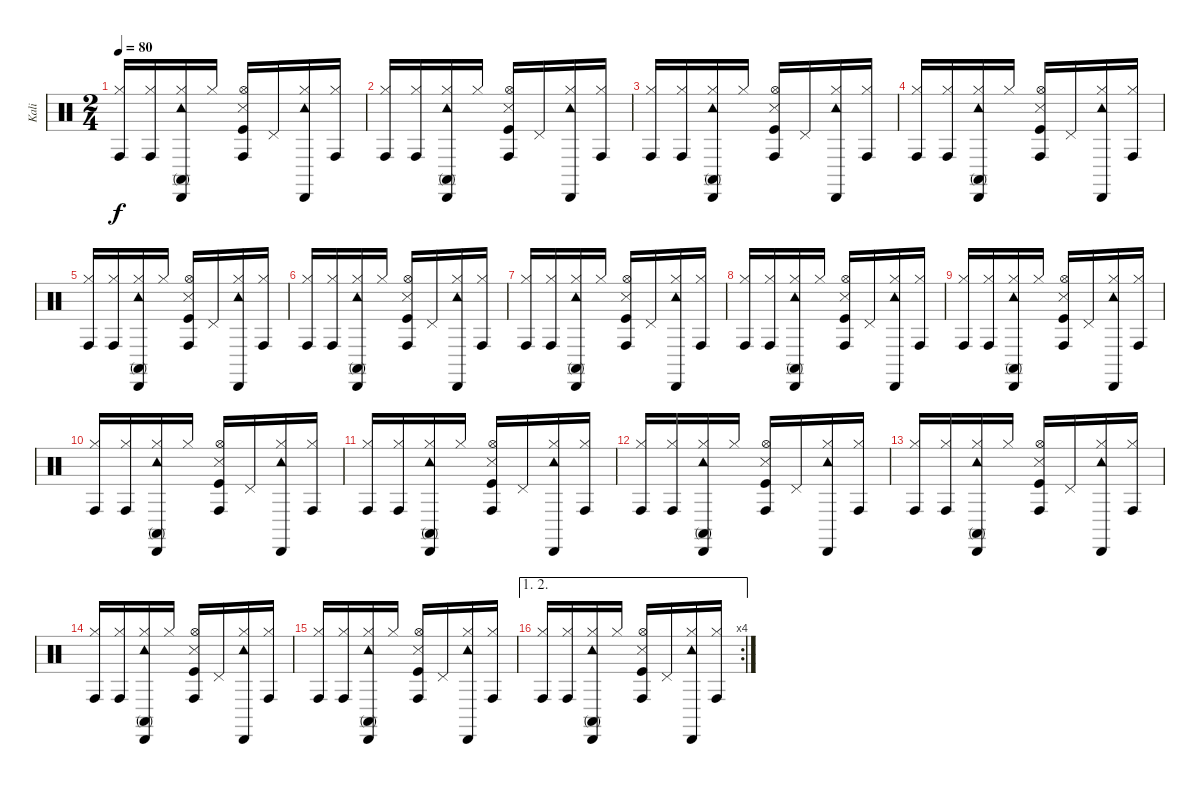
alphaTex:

\track ("Kali" "Kali") {instrument percussion}
\staff {score}
\articulation defaults
\ts (2 4)
\tempo 80
\clef neutral
\ks c
("Conga high (hit)" "Hi-Hat (closed)").16{dy f} ("Conga high (hit)" "Hi-Hat (closed)").16 ("Cabasa (hit)" "Tambourine (hit)" "Conga high (mute)" "Hi-Hat (closed)").16 "Hi-Hat (closed)".16 ("Conga high (hit)" "Hi-Hat (open)" "Snare (side stick) 3" "Kick (hit)").16 "Pedal Hi-Hat (hit)".16 ("Cabasa (hit)" "Tambourine (hit)" "Hi-Hat (closed)").16 ("Conga high (hit)" "Hi-Hat (closed)").16 |
("Conga high (hit)" "Hi-Hat (closed)").16 ("Conga high (hit)" "Hi-Hat (closed)").16 ("Cabasa (hit)" "Tambourine (hit)" "Conga high (mute)" "Hi-Hat (closed)").16 "Hi-Hat (closed)".16 ("Conga high (hit)" "Hi-Hat (open)" "Snare (side stick) 3" "Kick (hit)").16 "Pedal Hi-Hat (hit)".16 ("Cabasa (hit)" "Tambourine (hit)" "Hi-Hat (closed)").16 ("Conga high (hit)" "Hi-Hat (closed)").16 |
("Conga high (hit)" "Hi-Hat (closed)").16 ("Conga high (hit)" "Hi-Hat (closed)").16 ("Cabasa (hit)" "Tambourine (hit)" "Conga high (mute)" "Hi-Hat (closed)").16 "Hi-Hat (closed)".16 ("Conga high (hit)" "Hi-Hat (open)" "Snare (side stick) 3" "Kick (hit)").16 "Pedal Hi-Hat (hit)".16 ("Cabasa (hit)" "Tambourine (hit)" "Hi-Hat (closed)").16 ("Conga high (hit)" "Hi-Hat (closed)").16 |
("Conga high (hit)" "Hi-Hat (closed)").16 ("Conga high (hit)" "Hi-Hat (closed)").16 ("Cabasa (hit)" "Tambourine (hit)" "Conga high (mute)" "Hi-Hat (closed)").16 "Hi-Hat (closed)".16 ("Conga high (hit)" "Hi-Hat (open)" "Snare (side stick) 3" "Kick (hit)").16 "Pedal Hi-Hat (hit)".16 ("Cabasa (hit)" "Tambourine (hit)" "Hi-Hat (closed)").16 ("Conga high (hit)" "Hi-Hat (closed)").16 |
("Conga high (hit)" "Hi-Hat (closed)").16 ("Conga high (hit)" "Hi-Hat (closed)").16 ("Cabasa (hit)" "Tambourine (hit)" "Conga high (mute)" "Hi-Hat (closed)").16 "Hi-Hat (closed)".16 ("Conga high (hit)" "Hi-Hat (open)" "Snare (side stick) 3" "Kick (hit)").16 "Pedal Hi-Hat (hit)".16 ("Cabasa (hit)" "Tambourine (hit)" "Hi-Hat (closed)").16 ("Conga high (hit)" "Hi-Hat (closed)").16 |
("Conga high (hit)" "Hi-Hat (closed)").16 ("Conga high (hit)" "Hi-Hat (closed)").16 ("Cabasa (hit)" "Tambourine (hit)" "Conga high (mute)" "Hi-Hat (closed)").16 "Hi-Hat (closed)".16 ("Conga high (hit)" "Hi-Hat (open)" "Snare (side stick) 3" "Kick (hit)").16 "Pedal Hi-Hat (hit)".16 ("Cabasa (hit)" "Tambourine (hit)" "Hi-Hat (closed)").16 ("Conga high (hit)" "Hi-Hat (closed)").16 |
("Conga high (hit)" "Hi-Hat (closed)").16 ("Conga high (hit)" "Hi-Hat (closed)").16 ("Cabasa (hit)" "Tambourine (hit)" "Conga high (mute)" "Hi-Hat (closed)").16 "Hi-Hat (closed)".16 ("Conga high (hit)" "Hi-Hat (open)" "Snare (side stick) 3" "Kick (hit)").16 "Pedal Hi-Hat (hit)".16 ("Cabasa (hit)" "Tambourine (hit)" "Hi-Hat (closed)").16 ("Conga high (hit)" "Hi-Hat (closed)").16 |
("Conga high (hit)" "Hi-Hat (closed)").16 ("Conga high (hit)" "Hi-Hat (closed)").16 ("Cabasa (hit)" "Tambourine (hit)" "Conga high (mute)" "Hi-Hat (closed)").16 "Hi-Hat (closed)".16 ("Conga high (hit)" "Hi-Hat (open)" "Snare (side stick) 3" "Kick (hit)").16 "Pedal Hi-Hat (hit)".16 ("Cabasa (hit)" "Tambourine (hit)" "Hi-Hat (closed)").16 ("Conga high (hit)" "Hi-Hat (closed)").16 |
("Conga high (hit)" "Hi-Hat (closed)").16 ("Conga high (hit)" "Hi-Hat (closed)").16 ("Cabasa (hit)" "Tambourine (hit)" "Conga high (mute)" "Hi-Hat (closed)").16 "Hi-Hat (closed)".16 ("Conga high (hit)" "Hi-Hat (open)" "Snare (side stick) 3" "Kick (hit)").16 "Pedal Hi-Hat (hit)".16 ("Cabasa (hit)" "Tambourine (hit)" "Hi-Hat (closed)").16 ("Conga high (hit)" "Hi-Hat (closed)").16 |
("Conga high (hit)" "Hi-Hat (closed)").16 ("Conga high (hit)" "Hi-Hat (closed)").16 ("Cabasa (hit)" "Tambourine (hit)" "Conga high (mute)" "Hi-Hat (closed)").16 "Hi-Hat (closed)".16 ("Conga high (hit)" "Hi-Hat (open)" "Snare (side stick) 3" "Kick (hit)").16 "Pedal Hi-Hat (hit)".16 ("Cabasa (hit)" "Tambourine (hit)" "Hi-Hat (closed)").16 ("Conga high (hit)" "Hi-Hat (closed)").16 |
("Conga high (hit)" "Hi-Hat (closed)").16 ("Conga high (hit)" "Hi-Hat (closed)").16 ("Cabasa (hit)" "Tambourine (hit)" "Conga high (mute)" "Hi-Hat (closed)").16 "Hi-Hat (closed)".16 ("Conga high (hit)" "Hi-Hat (open)" "Snare (side stick) 3" "Kick (hit)").16 "Pedal Hi-Hat (hit)".16 ("Cabasa (hit)" "Tambourine (hit)" "Hi-Hat (closed)").16 ("Conga high (hit)" "Hi-Hat (closed)").16 |
("Conga high (hit)" "Hi-Hat (closed)").16 ("Conga high (hit)" "Hi-Hat (closed)").16 ("Cabasa (hit)" "Tambourine (hit)" "Conga high (mute)" "Hi-Hat (closed)").16 "Hi-Hat (closed)".16 ("Conga high (hit)" "Hi-Hat (open)" "Snare (side stick) 3" "Kick (hit)").16 "Pedal Hi-Hat (hit)".16 ("Cabasa (hit)" "Tambourine (hit)" "Hi-Hat (closed)").16 ("Conga high (hit)" "Hi-Hat (closed)").16 |
("Conga high (hit)" "Hi-Hat (closed)").16 ("Conga high (hit)" "Hi-Hat (closed)").16 ("Cabasa (hit)" "Tambourine (hit)" "Conga high (mute)" "Hi-Hat (closed)").16 "Hi-Hat (closed)".16 ("Conga high (hit)" "Hi-Hat (open)" "Snare (side stick) 3" "Kick (hit)").16 "Pedal Hi-Hat (hit)".16 ("Cabasa (hit)" "Tambourine (hit)" "Hi-Hat (closed)").16 ("Conga high (hit)" "Hi-Hat (closed)").16 |
("Conga high (hit)" "Hi-Hat (closed)").16 ("Conga high (hit)" "Hi-Hat (closed)").16 ("Cabasa (hit)" "Tambourine (hit)" "Conga high (mute)" "Hi-Hat (closed)").16 "Hi-Hat (closed)".16 ("Conga high (hit)" "Hi-Hat (open)" "Snare (side stick) 3" "Kick (hit)").16 "Pedal Hi-Hat (hit)".16 ("Cabasa (hit)" "Tambourine (hit)" "Hi-Hat (closed)").16 ("Conga high (hit)" "Hi-Hat (closed)").16 |
("Conga high (hit)" "Hi-Hat (closed)").16 ("Conga high (hit)" "Hi-Hat (closed)").16 ("Cabasa (hit)" "Tambourine (hit)" "Conga high (mute)" "Hi-Hat (closed)").16 "Hi-Hat (closed)".16 ("Conga high (hit)" "Hi-Hat (open)" "Snare (side stick) 3" "Kick (hit)").16 "Pedal Hi-Hat (hit)".16 ("Cabasa (hit)" "Tambourine (hit)" "Hi-Hat (closed)").16 ("Conga high (hit)" "Hi-Hat (closed)").16 |
\ae (1 2)
\rc 4
("Conga high (hit)" "Hi-Hat (closed)").16 ("Conga high (hit)" "Hi-Hat (closed)").16 ("Cabasa (hit)" "Tambourine (hit)" "Conga high (mute)" "Hi-Hat (closed)").16 "Hi-Hat (closed)".16 ("Conga high (hit)" "Hi-Hat (open)" "Snare (side stick) 3" "Kick (hit)").16 "Pedal Hi-Hat (hit)".16 ("Cabasa (hit)" "Tambourine (hit)" "Hi-Hat (closed)").16 ("Conga high (hit)" "Hi-Hat (closed)").16
